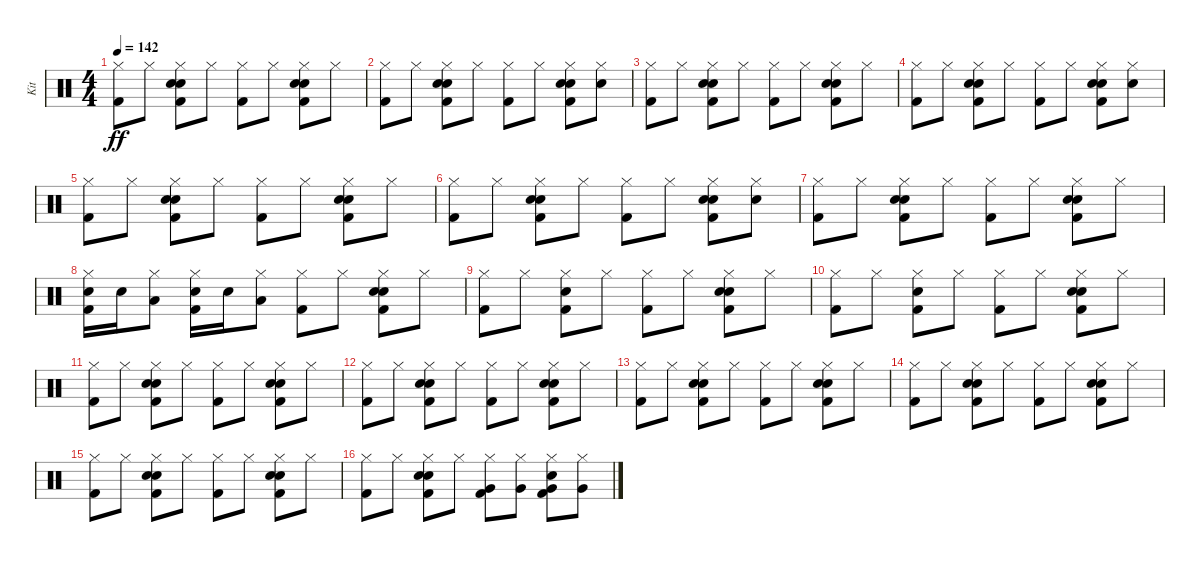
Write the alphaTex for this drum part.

\track ("Kit" "Kit") {instrument percussion}
\staff {score}
\articulation defaults
\ts (4 4)
\tempo 142
\clef neutral
\ks c
("Kick (hit) 2" "Hi-Hat (closed)").8{dy ff} "Hi-Hat (closed)".8 ("Kick (hit) 2" "Hand Clap (hit)" "Electric Snare (hit)" "Hi-Hat (closed)").8 "Hi-Hat (closed)".8 ("Kick (hit) 2" "Hi-Hat (closed)").8 "Hi-Hat (closed)".8 ("Kick (hit) 2" "Hand Clap (hit)" "Electric Snare (hit)" "Hi-Hat (closed)").8 "Hi-Hat (closed)".8 |
("Kick (hit) 2" "Hi-Hat (closed)").8 "Hi-Hat (closed)".8 ("Kick (hit) 2" "Hand Clap (hit)" "Electric Snare (hit)" "Hi-Hat (closed)").8 "Hi-Hat (closed)".8 ("Kick (hit) 2" "Hi-Hat (closed)").8 "Hi-Hat (closed)".8 ("Kick (hit) 2" "Hand Clap (hit)" "Electric Snare (hit)" "Hi-Hat (closed)").8 ("Hand Clap (hit)" "Hi-Hat (closed)").8 |
("Kick (hit) 2" "Hi-Hat (closed)").8 "Hi-Hat (closed)".8 ("Kick (hit) 2" "Hand Clap (hit)" "Electric Snare (hit)" "Hi-Hat (closed)").8 "Hi-Hat (closed)".8 ("Kick (hit) 2" "Hi-Hat (closed)").8 "Hi-Hat (closed)".8 ("Kick (hit) 2" "Hand Clap (hit)" "Electric Snare (hit)" "Hi-Hat (closed)").8 "Hi-Hat (closed)".8 |
("Kick (hit) 2" "Hi-Hat (closed)").8 "Hi-Hat (closed)".8 ("Kick (hit) 2" "Hand Clap (hit)" "Electric Snare (hit)" "Hi-Hat (closed)").8 "Hi-Hat (closed)".8 ("Kick (hit) 2" "Hi-Hat (closed)").8 "Hi-Hat (closed)".8 ("Kick (hit) 2" "Hand Clap (hit)" "Electric Snare (hit)" "Hi-Hat (closed)").8 ("Hand Clap (hit)" "Hi-Hat (closed)").8 |
("Kick (hit) 2" "Hi-Hat (closed)").8 "Hi-Hat (closed)".8 ("Kick (hit) 2" "Hand Clap (hit)" "Electric Snare (hit)" "Hi-Hat (closed)").8 "Hi-Hat (closed)".8 ("Kick (hit) 2" "Hi-Hat (closed)").8 "Hi-Hat (closed)".8 ("Kick (hit) 2" "Hand Clap (hit)" "Electric Snare (hit)" "Hi-Hat (closed)").8 "Hi-Hat (closed)".8 |
("Kick (hit) 2" "Hi-Hat (closed)").8 "Hi-Hat (closed)".8 ("Kick (hit) 2" "Hand Clap (hit)" "Electric Snare (hit)" "Hi-Hat (closed)").8 "Hi-Hat (closed)".8 ("Kick (hit) 2" "Hi-Hat (closed)").8 "Hi-Hat (closed)".8 ("Kick (hit) 2" "Hand Clap (hit)" "Electric Snare (hit)" "Hi-Hat (closed)").8 ("Hand Clap (hit)" "Hi-Hat (closed)").8 |
("Kick (hit) 2" "Hi-Hat (closed)").8 "Hi-Hat (closed)".8 ("Kick (hit) 2" "Hand Clap (hit)" "Electric Snare (hit)" "Hi-Hat (closed)").8 "Hi-Hat (closed)".8 ("Kick (hit) 2" "Hi-Hat (closed)").8 "Hi-Hat (closed)".8 ("Kick (hit) 2" "Hand Clap (hit)" "Electric Snare (hit)" "Hi-Hat (closed)").8 "Hi-Hat (closed)".8 |
("Kick (hit) 2" "Electric Snare (hit)" "Hi-Hat (closed)").16 "Electric Snare (hit)".16 ("Hi-Hat (closed)" "Low Tom (hit)").8 ("Kick (hit) 2" "Electric Snare (hit)" "Hi-Hat (closed)").16 "Electric Snare (hit)".16 ("Hi-Hat (closed)" "Low Tom (hit)").8 ("Kick (hit) 2" "Hi-Hat (closed)").8 "Hi-Hat (closed)".8 ("Kick (hit) 2" "Hand Clap (hit)" "Electric Snare (hit)" "Hi-Hat (closed)").8 "Hi-Hat (closed)".8 |
("Kick (hit) 2" "Hi-Hat (closed)").8 "Hi-Hat (closed)".8 ("Kick (hit) 2" "Electric Snare (hit)" "Hi-Hat (closed)").8 "Hi-Hat (closed)".8 ("Kick (hit) 2" "Hi-Hat (closed)").8 "Hi-Hat (closed)".8 ("Kick (hit) 2" "Hand Clap (hit)" "Electric Snare (hit)" "Hi-Hat (closed)").8 "Hi-Hat (closed)".8 |
("Kick (hit) 2" "Hi-Hat (closed)").8 "Hi-Hat (closed)".8 ("Kick (hit) 2" "Electric Snare (hit)" "Hi-Hat (closed)").8 "Hi-Hat (closed)".8 ("Kick (hit) 2" "Hi-Hat (closed)").8 "Hi-Hat (closed)".8 ("Kick (hit) 2" "Hand Clap (hit)" "Electric Snare (hit)" "Hi-Hat (closed)").8 "Hi-Hat (closed)".8 |
("Kick (hit) 2" "Hi-Hat (closed)").8 "Hi-Hat (closed)".8 ("Kick (hit) 2" "Hand Clap (hit)" "Electric Snare (hit)" "Hi-Hat (closed)").8 "Hi-Hat (closed)".8 ("Kick (hit) 2" "Hi-Hat (closed)").8 "Hi-Hat (closed)".8 ("Kick (hit) 2" "Hand Clap (hit)" "Electric Snare (hit)" "Hi-Hat (closed)").8 "Hi-Hat (closed)".8 |
("Kick (hit) 2" "Hi-Hat (closed)").8 "Hi-Hat (closed)".8 ("Kick (hit) 2" "Hand Clap (hit)" "Electric Snare (hit)" "Hi-Hat (closed)").8 "Hi-Hat (closed)".8 ("Kick (hit) 2" "Hi-Hat (closed)").8 "Hi-Hat (closed)".8 ("Kick (hit) 2" "Hand Clap (hit)" "Electric Snare (hit)" "Hi-Hat (closed)").8 "Hi-Hat (closed)".8 |
("Kick (hit) 2" "Hi-Hat (closed)").8 "Hi-Hat (closed)".8 ("Kick (hit) 2" "Hand Clap (hit)" "Electric Snare (hit)" "Hi-Hat (closed)").8 "Hi-Hat (closed)".8 ("Kick (hit) 2" "Hi-Hat (closed)").8 "Hi-Hat (closed)".8 ("Kick (hit) 2" "Hand Clap (hit)" "Electric Snare (hit)" "Hi-Hat (closed)").8 "Hi-Hat (closed)".8 |
("Kick (hit) 2" "Hi-Hat (closed)").8 "Hi-Hat (closed)".8 ("Kick (hit) 2" "Hand Clap (hit)" "Electric Snare (hit)" "Hi-Hat (closed)").8 "Hi-Hat (closed)".8 ("Kick (hit) 2" "Hi-Hat (closed)").8 "Hi-Hat (closed)".8 ("Kick (hit) 2" "Hand Clap (hit)" "Electric Snare (hit)" "Hi-Hat (closed)").8 "Hi-Hat (closed)".8 |
("Kick (hit) 2" "Hi-Hat (closed)").8 "Hi-Hat (closed)".8 ("Kick (hit) 2" "Hand Clap (hit)" "Electric Snare (hit)" "Hi-Hat (closed)").8 "Hi-Hat (closed)".8 ("Kick (hit) 2" "Hi-Hat (closed)").8 "Hi-Hat (closed)".8 ("Kick (hit) 2" "Hand Clap (hit)" "Electric Snare (hit)" "Hi-Hat (closed)").8 "Hi-Hat (closed)".8 |
("Kick (hit) 2" "Hi-Hat (closed)").8 "Hi-Hat (closed)".8 ("Kick (hit) 2" "Hand Clap (hit)" "Electric Snare (hit)" "Hi-Hat (closed)").8 "Hi-Hat (closed)".8 ("Kick (hit) 2" "Hi-Hat (closed)" "Very Low Tom (hit)").8 ("Hi-Hat (closed)" "Very Low Tom (hit)").8 ("Kick (hit) 2" "Electric Snare (hit)" "Hi-Hat (closed)" "Very Low Tom (hit)").8 ("Hi-Hat (closed)" "Very Low Tom (hit)").8
